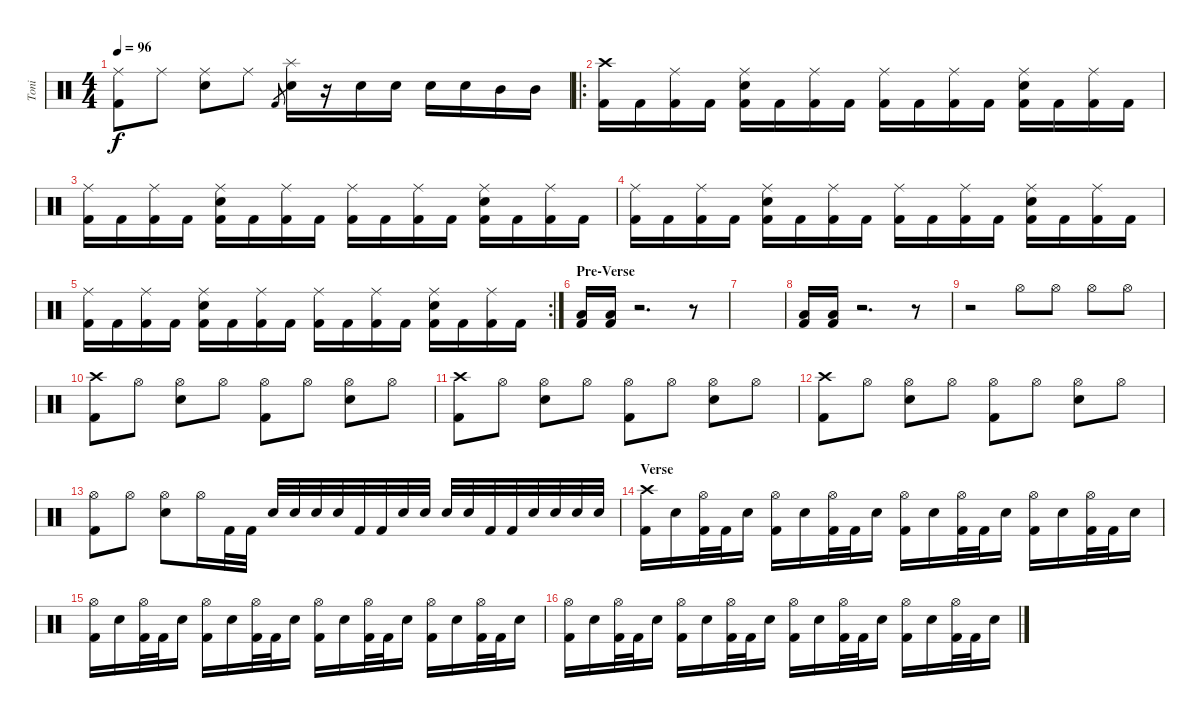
\track ("Toni" "Toni") {instrument percussion}
\staff {score}
\articulation defaults
\ts (4 4)
\tempo 96
\clef neutral
\ks c
("Ride (middle)" "Kick (hit) 2").8{dy f} "Ride (middle)".8 ("Ride (middle)" "Electric Snare (hit)").8 "Ride (middle)".8 "Kick (hit) 2".8{gr} ("Splash (hit)" "Electric Snare (hit)").16 r.16 "Electric Snare (hit)".16 "Electric Snare (hit)".16 "Electric Snare (hit)".16 "Electric Snare (hit)".16 "Mid Tom (hit)".16 "Mid Tom (hit)".16 |
\ro
("Crash high (hit)" "Kick (hit) 2").16 "Kick (hit) 2".16 ("Ride (middle)" "Kick (hit) 2").16 "Kick (hit) 2".16 ("Ride (middle)" "Electric Snare (hit)" "Kick (hit) 2").16 "Kick (hit) 2".16 ("Ride (middle)" "Kick (hit) 2").16 "Kick (hit) 2".16 ("Ride (middle)" "Kick (hit) 2").16 "Kick (hit) 2".16 ("Ride (middle)" "Kick (hit) 2").16 "Kick (hit) 2".16 ("Ride (middle)" "Electric Snare (hit)" "Kick (hit) 2").16 "Kick (hit) 2".16 ("Ride (middle)" "Kick (hit) 2").16 "Kick (hit) 2".16 |
("Ride (middle)" "Kick (hit) 2").16 "Kick (hit) 2".16 ("Ride (middle)" "Kick (hit) 2").16 "Kick (hit) 2".16 ("Ride (middle)" "Electric Snare (hit)" "Kick (hit) 2").16 "Kick (hit) 2".16 ("Ride (middle)" "Kick (hit) 2").16 "Kick (hit) 2".16 ("Ride (middle)" "Kick (hit) 2").16 "Kick (hit) 2".16 ("Ride (middle)" "Kick (hit) 2").16 "Kick (hit) 2".16 ("Ride (middle)" "Electric Snare (hit)" "Kick (hit) 2").16 "Kick (hit) 2".16 ("Ride (middle)" "Kick (hit) 2").16 "Kick (hit) 2".16 |
("Ride (middle)" "Kick (hit) 2").16 "Kick (hit) 2".16 ("Ride (middle)" "Kick (hit) 2").16 "Kick (hit) 2".16 ("Ride (middle)" "Electric Snare (hit)" "Kick (hit) 2").16 "Kick (hit) 2".16 ("Ride (middle)" "Kick (hit) 2").16 "Kick (hit) 2".16 ("Ride (middle)" "Kick (hit) 2").16 "Kick (hit) 2".16 ("Ride (middle)" "Kick (hit) 2").16 "Kick (hit) 2".16 ("Ride (middle)" "Electric Snare (hit)" "Kick (hit) 2").16 "Kick (hit) 2".16 ("Ride (middle)" "Kick (hit) 2").16 "Kick (hit) 2".16 |
\rc 2
("Ride (middle)" "Kick (hit) 2").16 "Kick (hit) 2".16 ("Ride (middle)" "Kick (hit) 2").16 "Kick (hit) 2".16 ("Ride (middle)" "Electric Snare (hit)" "Kick (hit) 2").16 "Kick (hit) 2".16 ("Ride (middle)" "Kick (hit) 2").16 "Kick (hit) 2".16 ("Ride (middle)" "Kick (hit) 2").16 "Kick (hit) 2".16 ("Ride (middle)" "Kick (hit) 2").16 "Kick (hit) 2".16 ("Ride (middle)" "Electric Snare (hit)" "Kick (hit) 2").16 "Kick (hit) 2".16 ("Ride (middle)" "Kick (hit) 2").16 "Kick (hit) 2".16 |
\section ("" "Pre-Verse")
("Low Tom (hit)" "Kick (hit) 2").16 ("Low Tom (hit)" "Kick (hit) 2").16 r.2{d} r.8 |
|
("Low Tom (hit)" "Kick (hit) 2").16 ("Low Tom (hit)" "Kick (hit) 2").16 r.2{d} r.8 |
r.2 "Hi-Hat (open)".8 "Hi-Hat (open)".8 "Hi-Hat (open)".8 "Hi-Hat (open)".8 |
("Crash high (hit)" "Kick (hit) 2").8 "Hi-Hat (open)".8 ("Hi-Hat (open)" "Electric Snare (hit)").8 "Hi-Hat (open)".8 ("Hi-Hat (open)" "Kick (hit) 2").8 "Hi-Hat (open)".8 ("Hi-Hat (open)" "Electric Snare (hit)").8 "Hi-Hat (open)".8 |
("Crash high (hit)" "Kick (hit) 2").8 "Hi-Hat (open)".8 ("Hi-Hat (open)" "Electric Snare (hit)").8 "Hi-Hat (open)".8 ("Hi-Hat (open)" "Kick (hit) 2").8 "Hi-Hat (open)".8 ("Hi-Hat (open)" "Electric Snare (hit)").8 "Hi-Hat (open)".8 |
("Crash high (hit)" "Kick (hit) 2").8 "Hi-Hat (open)".8 ("Hi-Hat (open)" "Electric Snare (hit)").8 "Hi-Hat (open)".8 ("Hi-Hat (open)" "Kick (hit) 2").8 "Hi-Hat (open)".8 ("Hi-Hat (open)" "Electric Snare (hit)").8 "Hi-Hat (open)".8 |
("Hi-Hat (open)" "Kick (hit) 2").8 "Hi-Hat (open)".8 ("Hi-Hat (open)" "Electric Snare (hit)").8 "Hi-Hat (open)".16 "Kick (hit) 2".32 "Kick (hit) 2".32 "Electric Snare (hit)".32 "Electric Snare (hit)".32 "Electric Snare (hit)".32 "Electric Snare (hit)".32 "Kick (hit) 2".32 "Kick (hit) 2".32 "Electric Snare (hit)".32 "Electric Snare (hit)".32 "Electric Snare (hit)".32 "Electric Snare (hit)".32 "Kick (hit) 2".32 "Kick (hit) 2".32 "Electric Snare (hit)".32 "Electric Snare (hit)".32 "Electric Snare (hit)".32 "Electric Snare (hit)".32 |
\section ("" "Verse")
("Crash high (hit)" "Kick (hit) 2").16 "Electric Snare (hit)".16 ("Hi-Hat (open)" "Kick (hit) 2").32 "Kick (hit) 2".32 "Electric Snare (hit)".16 ("Hi-Hat (open)" "Kick (hit) 2").16 "Electric Snare (hit)".16 ("Hi-Hat (open)" "Kick (hit) 2").32 "Kick (hit) 2".32 "Electric Snare (hit)".16 ("Hi-Hat (open)" "Kick (hit) 2").16 "Electric Snare (hit)".16 ("Hi-Hat (open)" "Kick (hit) 2").32 "Kick (hit) 2".32 "Electric Snare (hit)".16 ("Hi-Hat (open)" "Kick (hit) 2").16 "Electric Snare (hit)".16 ("Hi-Hat (open)" "Kick (hit) 2").32 "Kick (hit) 2".32 "Electric Snare (hit)".16 |
("Hi-Hat (open)" "Kick (hit) 2").16 "Electric Snare (hit)".16 ("Hi-Hat (open)" "Kick (hit) 2").32 "Kick (hit) 2".32 "Electric Snare (hit)".16 ("Hi-Hat (open)" "Kick (hit) 2").16 "Electric Snare (hit)".16 ("Hi-Hat (open)" "Kick (hit) 2").32 "Kick (hit) 2".32 "Electric Snare (hit)".16 ("Hi-Hat (open)" "Kick (hit) 2").16 "Electric Snare (hit)".16 ("Hi-Hat (open)" "Kick (hit) 2").32 "Kick (hit) 2".32 "Electric Snare (hit)".16 ("Hi-Hat (open)" "Kick (hit) 2").16 "Electric Snare (hit)".16 ("Hi-Hat (open)" "Kick (hit) 2").32 "Kick (hit) 2".32 "Electric Snare (hit)".16 |
("Hi-Hat (open)" "Kick (hit) 2").16 "Electric Snare (hit)".16 ("Hi-Hat (open)" "Kick (hit) 2").32 "Kick (hit) 2".32 "Electric Snare (hit)".16 ("Hi-Hat (open)" "Kick (hit) 2").16 "Electric Snare (hit)".16 ("Hi-Hat (open)" "Kick (hit) 2").32 "Kick (hit) 2".32 "Electric Snare (hit)".16 ("Hi-Hat (open)" "Kick (hit) 2").16 "Electric Snare (hit)".16 ("Hi-Hat (open)" "Kick (hit) 2").32 "Kick (hit) 2".32 "Electric Snare (hit)".16 ("Hi-Hat (open)" "Kick (hit) 2").16 "Electric Snare (hit)".16 ("Hi-Hat (open)" "Kick (hit) 2").32 "Kick (hit) 2".32 "Electric Snare (hit)".16
